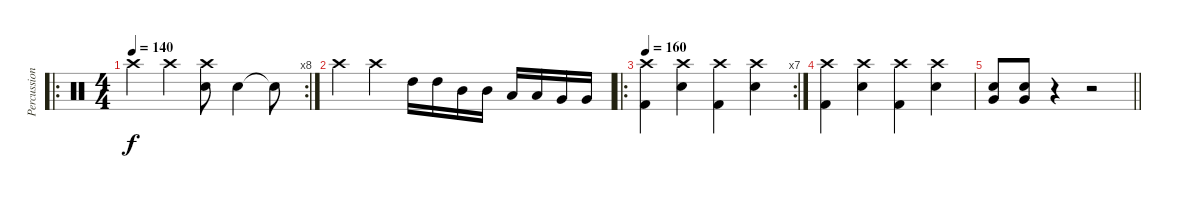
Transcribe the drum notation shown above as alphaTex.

\track ("Percussions" "Percussion") {instrument percussion}
\staff {score}
\articulation defaults
\ro
\rc 8
\ts (4 4)
\tempo 140
\clef neutral
\ks c "Crash high (hit)".4{dy f} "Crash high (hit)".4
("Electric Snare (hit)" "Crash high (hit)").8 "Electric Snare (hit)".4 "Snare (hit)"{t}.8 |
"Crash high (hit)".4 "Crash high (hit)".4 "High Tom (hit)".16 "High Tom (hit)".16 "Mid Tom (hit)".16 "Mid Tom (hit)".16 "Low Tom (hit)".16 "Low Tom (hit)".16 "Very Low Tom (hit)".16 "Very Low Tom (hit)".16 |
\ro
\rc 7
\tempo 160
("Kick (hit) 2" "Crash high (hit)").4 ("Crash high (hit)" "Electric Snare (hit)").4 ("Kick (hit) 2" "Crash high (hit)").4 ("Crash high (hit)" "Electric Snare (hit)").4 |
("Kick (hit) 2" "Crash high (hit)").4 ("Crash high (hit)" "Electric Snare (hit)").4 ("Kick (hit) 2" "Crash high (hit)").4 ("Crash high (hit)" "Electric Snare (hit)").4 |
\barLineRight lightlight
("Electric Snare (hit)" "Very Low Tom (hit)").8 ("Electric Snare (hit)" "Very Low Tom (hit)").8 r.4 r.2
